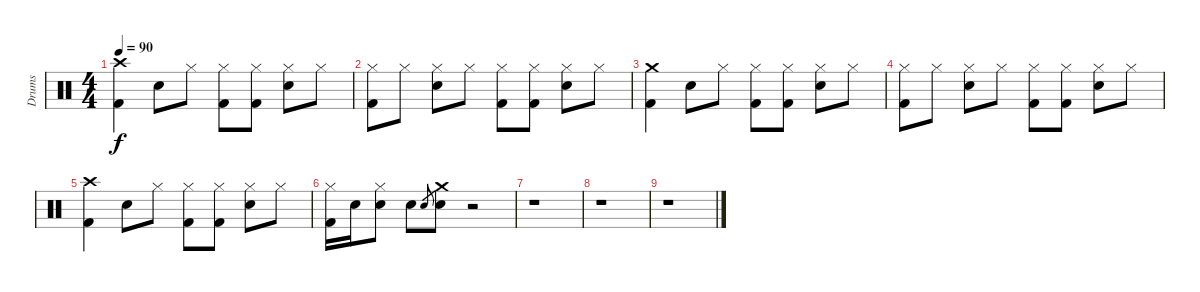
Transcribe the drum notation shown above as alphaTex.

\track ("Drums" "Drums") {instrument percussion}
\staff {score}
\articulation defaults
\ts (4 4)
\tempo 90
\clef neutral
\ks c
("Kick (hit) 2" "Crash high (hit)").4{dy f} "Snare (hit) 2".8 "Hi-Hat (closed)".8 ("Kick (hit) 2" "Hi-Hat (closed)").8 ("Kick (hit) 2" "Hi-Hat (closed)").8 ("Snare (hit) 2" "Hi-Hat (closed)").8 "Hi-Hat (closed)".8 |
("Kick (hit) 2" "Hi-Hat (closed)").8 "Hi-Hat (closed)".8 ("Snare (hit) 2" "Hi-Hat (closed)").8 "Hi-Hat (closed)".8 ("Kick (hit) 2" "Hi-Hat (closed)").8 ("Kick (hit) 2" "Hi-Hat (closed)").8 ("Snare (hit) 2" "Hi-Hat (closed)").8 "Hi-Hat (closed)".8 |
("Kick (hit) 2" "Crash medium (hit)").4 "Snare (hit) 2".8 "Hi-Hat (closed)".8 ("Kick (hit) 2" "Hi-Hat (closed)").8 ("Kick (hit) 2" "Hi-Hat (closed)").8 ("Snare (hit) 2" "Hi-Hat (closed)").8 "Hi-Hat (closed)".8 |
("Kick (hit) 2" "Hi-Hat (closed)").8 "Hi-Hat (closed)".8 ("Snare (hit) 2" "Hi-Hat (closed)").8 "Hi-Hat (closed)".8 ("Kick (hit) 2" "Hi-Hat (closed)").8 ("Kick (hit) 2" "Hi-Hat (closed)").8 ("Snare (hit) 2" "Hi-Hat (closed)").8 "Hi-Hat (closed)".8 |
("Kick (hit) 2" "Crash high (hit)").4 "Snare (hit) 2".8 "Hi-Hat (closed)".8 ("Kick (hit) 2" "Hi-Hat (closed)").8 ("Kick (hit) 2" "Hi-Hat (closed)").8 ("Snare (hit) 2" "Hi-Hat (closed)").8 "Hi-Hat (closed)".8 |
("Kick (hit) 2" "Hi-Hat (closed)").16 "Snare (hit) 2".16 ("Snare (hit) 2" "Hi-Hat (closed)").8 "Snare (hit) 2".8 "Snare (hit) 2".8{gr} ("Snare (hit) 2" "Crash medium (hit)").8 r.2 |
r.1 |
r.1 |
r.1
